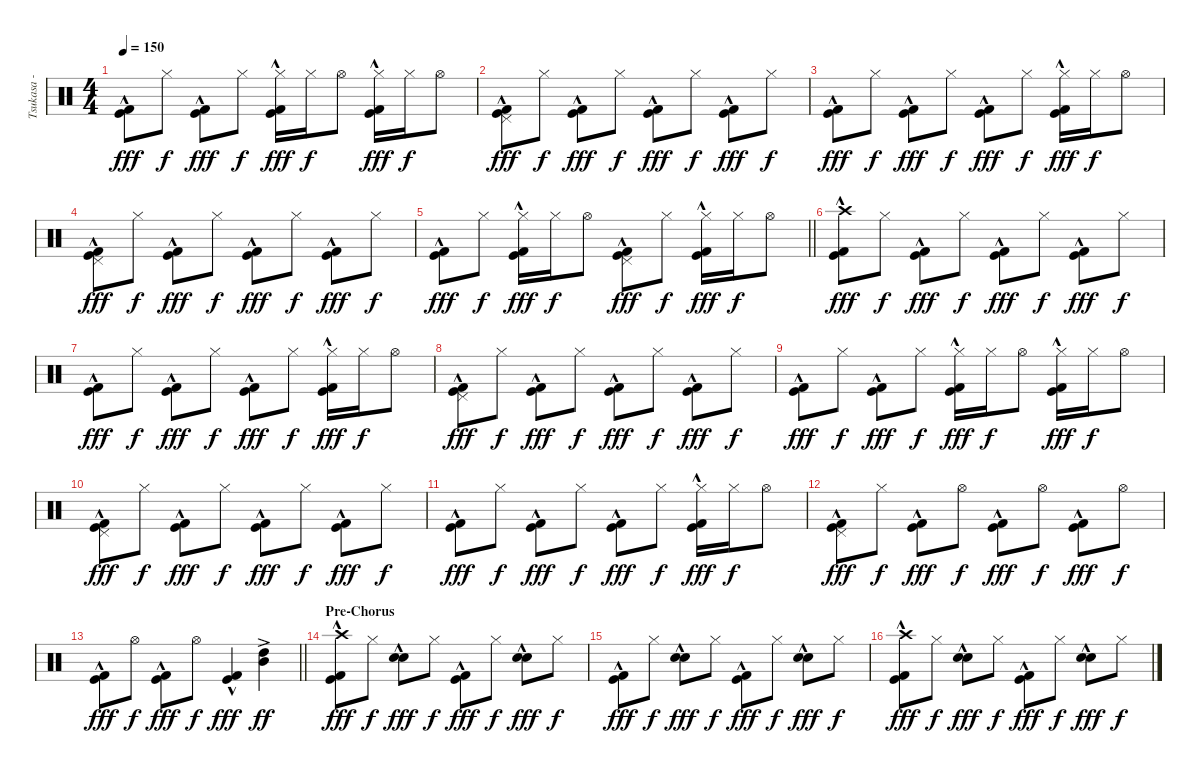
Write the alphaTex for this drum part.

\track ("Tsukasa - Drums" "Tsukasa - ") {instrument percussion}
\staff {score}
\articulation defaults
\ts (4 4)
\tempo 150
\clef neutral
\ks c
("Kick (hit)" "Kick (hit) 2"{hac}).8{dy fff} "Hi-Hat (closed)".8{dy f} ("Kick (hit)" "Kick (hit) 2"{hac}).8{dy fff} "Hi-Hat (closed)".8{dy f} ("Hi-Hat (closed)" "Kick (hit)" "Kick (hit) 2"{hac}).16{dy fff} "Hi-Hat (closed)".16{dy f} "Hi-Hat (open)".8 ("Hi-Hat (closed)" "Kick (hit)" "Kick (hit) 2"{hac}).16{dy fff} "Hi-Hat (closed)".16{dy f} "Hi-Hat (open)".8 |
("Pedal Hi-Hat (hit)" "Kick (hit)" "Kick (hit) 2"{hac}).8{dy fff} "Hi-Hat (closed)".8{dy f} ("Kick (hit)" "Kick (hit) 2"{hac}).8{dy fff} "Hi-Hat (closed)".8{dy f} ("Kick (hit)" "Kick (hit) 2"{hac}).8{dy fff} "Hi-Hat (closed)".8{dy f} ("Kick (hit)" "Kick (hit) 2"{hac}).8{dy fff} "Hi-Hat (closed)".8{dy f} |
("Kick (hit)" "Kick (hit) 2"{hac}).8{dy fff} "Hi-Hat (closed)".8{dy f} ("Kick (hit)" "Kick (hit) 2"{hac}).8{dy fff} "Hi-Hat (closed)".8{dy f} ("Kick (hit)" "Kick (hit) 2"{hac}).8{dy fff} "Hi-Hat (closed)".8{dy f} ("Hi-Hat (closed)" "Kick (hit)" "Kick (hit) 2"{hac}).16{dy fff} "Hi-Hat (closed)".16{dy f} "Hi-Hat (open)".8 |
("Pedal Hi-Hat (hit)" "Kick (hit)" "Kick (hit) 2"{hac}).8{dy fff} "Hi-Hat (closed)".8{dy f} ("Kick (hit)" "Kick (hit) 2"{hac}).8{dy fff} "Hi-Hat (closed)".8{dy f} ("Kick (hit)" "Kick (hit) 2"{hac}).8{dy fff} "Hi-Hat (closed)".8{dy f} ("Kick (hit)" "Kick (hit) 2"{hac}).8{dy fff} "Hi-Hat (closed)".8{dy f} |
\barLineRight lightlight
("Kick (hit)" "Kick (hit) 2"{hac}).8{dy fff} "Hi-Hat (closed)".8{dy f} ("Hi-Hat (closed)" "Kick (hit)" "Kick (hit) 2"{hac}).16{dy fff} "Hi-Hat (closed)".16{dy f} "Hi-Hat (open)".8 ("Pedal Hi-Hat (hit)" "Kick (hit)" "Kick (hit) 2"{hac}).8{dy fff} "Hi-Hat (closed)".8{dy f} ("Hi-Hat (closed)" "Kick (hit)" "Kick (hit) 2"{hac}).16{dy fff} "Hi-Hat (closed)".16{dy f} "Hi-Hat (open)".8 |
\section ("" "")
("Crash high (hit)" "Kick (hit)" "Kick (hit) 2"{hac}).8{dy fff} "Hi-Hat (closed)".8{dy f} ("Kick (hit)" "Kick (hit) 2"{hac}).8{dy fff} "Hi-Hat (closed)".8{dy f} ("Kick (hit)" "Kick (hit) 2"{hac}).8{dy fff} "Hi-Hat (closed)".8{dy f} ("Kick (hit)" "Kick (hit) 2"{hac}).8{dy fff} "Hi-Hat (closed)".8{dy f} |
("Kick (hit)" "Kick (hit) 2"{hac}).8{dy fff} "Hi-Hat (closed)".8{dy f} ("Kick (hit)" "Kick (hit) 2"{hac}).8{dy fff} "Hi-Hat (closed)".8{dy f} ("Kick (hit)" "Kick (hit) 2"{hac}).8{dy fff} "Hi-Hat (closed)".8{dy f} ("Hi-Hat (closed)" "Kick (hit)" "Kick (hit) 2"{hac}).16{dy fff} "Hi-Hat (closed)".16{dy f} "Hi-Hat (open)".8 |
("Pedal Hi-Hat (hit)" "Kick (hit)" "Kick (hit) 2"{hac}).8{dy fff} "Hi-Hat (closed)".8{dy f} ("Kick (hit)" "Kick (hit) 2"{hac}).8{dy fff} "Hi-Hat (closed)".8{dy f} ("Kick (hit)" "Kick (hit) 2"{hac}).8{dy fff} "Hi-Hat (closed)".8{dy f} ("Kick (hit)" "Kick (hit) 2"{hac}).8{dy fff} "Hi-Hat (closed)".8{dy f} |
("Kick (hit)" "Kick (hit) 2"{hac}).8{dy fff} "Hi-Hat (closed)".8{dy f} ("Kick (hit)" "Kick (hit) 2"{hac}).8{dy fff} "Hi-Hat (closed)".8{dy f} ("Hi-Hat (closed)" "Kick (hit)" "Kick (hit) 2"{hac}).16{dy fff} "Hi-Hat (closed)".16{dy f} "Hi-Hat (open)".8 ("Hi-Hat (closed)" "Kick (hit)" "Kick (hit) 2"{hac}).16{dy fff} "Hi-Hat (closed)".16{dy f} "Hi-Hat (open)".8 |
("Pedal Hi-Hat (hit)" "Kick (hit)" "Kick (hit) 2"{hac}).8{dy fff} "Hi-Hat (closed)".8{dy f} ("Kick (hit)" "Kick (hit) 2"{hac}).8{dy fff} "Hi-Hat (closed)".8{dy f} ("Kick (hit)" "Kick (hit) 2"{hac}).8{dy fff} "Hi-Hat (closed)".8{dy f} ("Kick (hit)" "Kick (hit) 2"{hac}).8{dy fff} "Hi-Hat (closed)".8{dy f} |
("Kick (hit)" "Kick (hit) 2"{hac}).8{dy fff} "Hi-Hat (closed)".8{dy f} ("Kick (hit)" "Kick (hit) 2"{hac}).8{dy fff} "Hi-Hat (closed)".8{dy f} ("Kick (hit)" "Kick (hit) 2"{hac}).8{dy fff} "Hi-Hat (closed)".8{dy f} ("Hi-Hat (closed)" "Kick (hit)" "Kick (hit) 2"{hac}).16{dy fff} "Hi-Hat (closed)".16{dy f} "Hi-Hat (open)".8 |
("Pedal Hi-Hat (hit)" "Kick (hit)" "Kick (hit) 2"{hac}).8{dy fff} "Hi-Hat (closed)".8{dy f} ("Kick (hit)" "Kick (hit) 2"{hac}).8{dy fff} "Hi-Hat (open)".8{dy f} ("Kick (hit)" "Kick (hit) 2"{hac}).8{dy fff} "Hi-Hat (open)".8{dy f} ("Kick (hit)" "Kick (hit) 2"{hac}).8{dy fff} "Hi-Hat (open)".8{dy f} |
\barLineRight lightlight
("Kick (hit)" "Kick (hit) 2"{hac}).8{dy fff} "Hi-Hat (open)".8{dy f} ("Kick (hit)" "Kick (hit) 2"{hac}).8{dy fff} "Hi-Hat (open)".8{dy f} ("Kick (hit)" "Kick (hit) 2"{hac}).4{dy fff} ("High Tom (hit)"{ac} "Mid Tom (hit)"{ac}).4{dy ff} |
\section ("" "Pre-Chorus")
("Crash high (hit)" "Kick (hit)" "Kick (hit) 2"{hac}).8{dy fff} "Hi-Hat (closed)".8{dy f} ("Electric Snare (hit)"{hac} "Snare (hit) 2").8{dy fff} "Hi-Hat (closed)".8{dy f} ("Kick (hit)" "Kick (hit) 2"{hac}).8{dy fff} "Hi-Hat (closed)".8{dy f} ("Electric Snare (hit)"{hac} "Snare (hit) 2").8{dy fff} "Hi-Hat (closed)".8{dy f} |
("Kick (hit)" "Kick (hit) 2"{hac}).8{dy fff} "Hi-Hat (closed)".8{dy f} ("Electric Snare (hit)"{hac} "Snare (hit) 2").8{dy fff} "Hi-Hat (closed)".8{dy f} ("Kick (hit)" "Kick (hit) 2"{hac}).8{dy fff} "Hi-Hat (closed)".8{dy f} ("Electric Snare (hit)"{hac} "Snare (hit) 2").8{dy fff} "Hi-Hat (closed)".8{dy f} |
("Crash high (hit)" "Kick (hit)" "Kick (hit) 2"{hac}).8{dy fff} "Hi-Hat (closed)".8{dy f} ("Electric Snare (hit)"{hac} "Snare (hit) 2").8{dy fff} "Hi-Hat (closed)".8{dy f} ("Kick (hit)" "Kick (hit) 2"{hac}).8{dy fff} "Hi-Hat (closed)".8{dy f} ("Electric Snare (hit)"{hac} "Snare (hit) 2").8{dy fff} "Hi-Hat (closed)".8{dy f}
